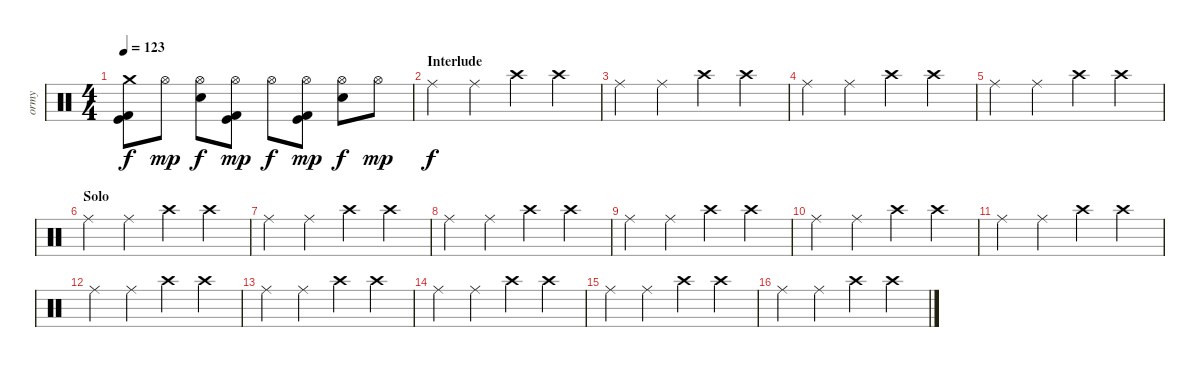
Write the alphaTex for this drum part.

\track ("ormy" "ormy") {instrument percussion}
\staff {score}
\articulation defaults
\ts (4 4)
\tempo 123
\clef neutral
\ks c
("Crash medium (hit)" "Kick (hit) 2" "Kick (hit)").8{dy f} "Hi-Hat (open)".8{dy mp} ("Hi-Hat (open)" "Snare (hit) 2").8{dy f} ("Hi-Hat (open)" "Kick (hit) 2" "Kick (hit)").8{dy mp} "Hi-Hat (open)".8{dy f} ("Hi-Hat (open)" "Kick (hit) 2" "Kick (hit)").8{dy mp} ("Hi-Hat (open)" "Snare (hit) 2").8{dy f} "Hi-Hat (open)".8{dy mp} |
\section ("" "Interlude")
"Ride (middle)".4{dy f} "Ride (middle)".4 "Crash high (hit)".4 "Crash high (hit)".4 |
"Ride (middle)".4 "Ride (middle)".4 "Crash high (hit)".4 "Crash high (hit)".4 |
"Ride (middle)".4 "Ride (middle)".4 "Crash high (hit)".4 "Crash high (hit)".4 |
"Ride (middle)".4 "Ride (middle)".4 "Crash high (hit)".4 "Crash high (hit)".4 |
\section ("" "Solo")
"Ride (middle)".4 "Ride (middle)".4 "Crash high (hit)".4 "Crash high (hit)".4 |
"Ride (middle)".4 "Ride (middle)".4 "Crash high (hit)".4 "Crash high (hit)".4 |
"Ride (middle)".4 "Ride (middle)".4 "Crash high (hit)".4 "Crash high (hit)".4 |
"Ride (middle)".4 "Ride (middle)".4 "Crash high (hit)".4 "Crash high (hit)".4 |
"Ride (middle)".4 "Ride (middle)".4 "Crash high (hit)".4 "Crash high (hit)".4 |
"Ride (middle)".4 "Ride (middle)".4 "Crash high (hit)".4 "Crash high (hit)".4 |
"Ride (middle)".4 "Ride (middle)".4 "Crash high (hit)".4 "Crash high (hit)".4 |
"Ride (middle)".4 "Ride (middle)".4 "Crash high (hit)".4 "Crash high (hit)".4 |
"Ride (middle)".4 "Ride (middle)".4 "Crash high (hit)".4 "Crash high (hit)".4 |
"Ride (middle)".4 "Ride (middle)".4 "Crash high (hit)".4 "Crash high (hit)".4 |
"Ride (middle)".4 "Ride (middle)".4 "Crash high (hit)".4 "Crash high (hit)".4
